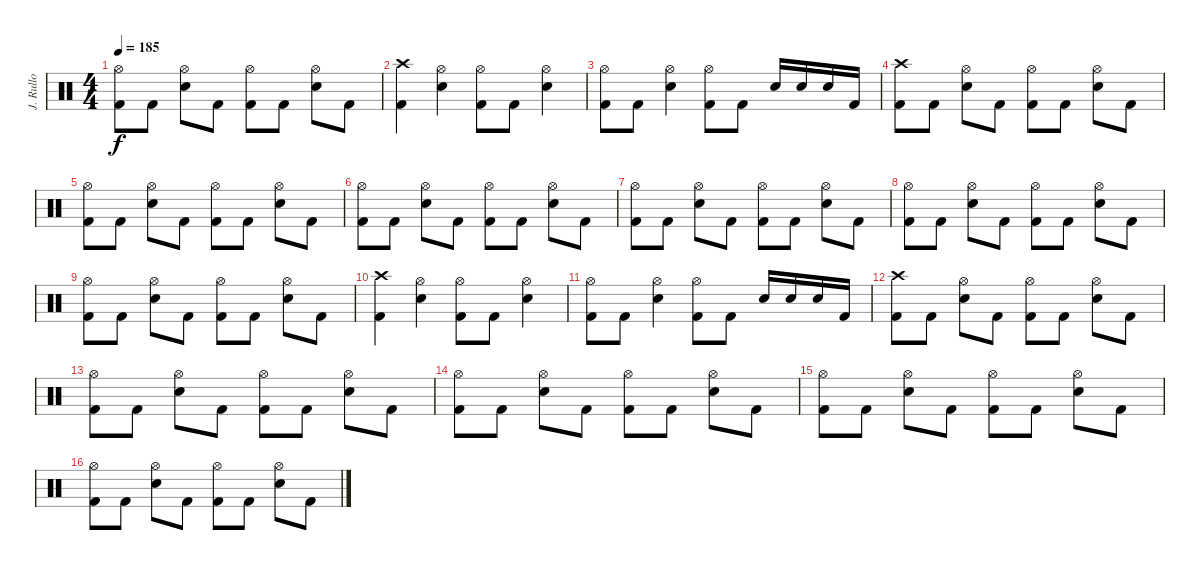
\track ("J. Rullo" "J. Rullo") {instrument percussion}
\staff {score}
\articulation defaults
\ts (4 4)
\tempo 185
\clef neutral
\ks c
("Hi-Hat (open)" "Kick (hit) 2").8{dy f} "Kick (hit) 2".8 ("Hi-Hat (open)" "Snare (hit) 2").8 "Kick (hit) 2".8 ("Hi-Hat (open)" "Kick (hit) 2").8 "Kick (hit) 2".8 ("Hi-Hat (open)" "Snare (hit) 2").8 "Kick (hit) 2".8 |
("Crash high (hit)" "Kick (hit) 2").4 ("Hi-Hat (open)" "Snare (hit) 2").4 ("Hi-Hat (open)" "Kick (hit) 2").8 "Kick (hit) 2".8 ("Hi-Hat (open)" "Snare (hit) 2").4 |
("Hi-Hat (open)" "Kick (hit) 2").8 "Kick (hit) 2".8 ("Hi-Hat (open)" "Snare (hit) 2").4 ("Hi-Hat (open)" "Kick (hit) 2").8 "Kick (hit) 2".8 "Snare (hit) 2".16 "Snare (hit) 2".16 "Snare (hit) 2".16 "Kick (hit) 2".16 |
("Crash high (hit)" "Kick (hit) 2").8 "Kick (hit) 2".8 ("Hi-Hat (open)" "Snare (hit) 2").8 "Kick (hit) 2".8 ("Hi-Hat (open)" "Kick (hit) 2").8 "Kick (hit) 2".8 ("Hi-Hat (open)" "Snare (hit) 2").8 "Kick (hit) 2".8 |
("Hi-Hat (open)" "Kick (hit) 2").8 "Kick (hit) 2".8 ("Hi-Hat (open)" "Snare (hit) 2").8 "Kick (hit) 2".8 ("Hi-Hat (open)" "Kick (hit) 2").8 "Kick (hit) 2".8 ("Hi-Hat (open)" "Snare (hit) 2").8 "Kick (hit) 2".8 |
("Hi-Hat (open)" "Kick (hit) 2").8 "Kick (hit) 2".8 ("Hi-Hat (open)" "Snare (hit) 2").8 "Kick (hit) 2".8 ("Hi-Hat (open)" "Kick (hit) 2").8 "Kick (hit) 2".8 ("Hi-Hat (open)" "Snare (hit) 2").8 "Kick (hit) 2".8 |
("Hi-Hat (open)" "Kick (hit) 2").8 "Kick (hit) 2".8 ("Hi-Hat (open)" "Snare (hit) 2").8 "Kick (hit) 2".8 ("Hi-Hat (open)" "Kick (hit) 2").8 "Kick (hit) 2".8 ("Hi-Hat (open)" "Snare (hit) 2").8 "Kick (hit) 2".8 |
("Hi-Hat (open)" "Kick (hit) 2").8 "Kick (hit) 2".8 ("Hi-Hat (open)" "Snare (hit) 2").8 "Kick (hit) 2".8 ("Hi-Hat (open)" "Kick (hit) 2").8 "Kick (hit) 2".8 ("Hi-Hat (open)" "Snare (hit) 2").8 "Kick (hit) 2".8 |
("Hi-Hat (open)" "Kick (hit) 2").8 "Kick (hit) 2".8 ("Hi-Hat (open)" "Snare (hit) 2").8 "Kick (hit) 2".8 ("Hi-Hat (open)" "Kick (hit) 2").8 "Kick (hit) 2".8 ("Hi-Hat (open)" "Snare (hit) 2").8 "Kick (hit) 2".8 |
("Crash high (hit)" "Kick (hit) 2").4 ("Hi-Hat (open)" "Snare (hit) 2").4 ("Hi-Hat (open)" "Kick (hit) 2").8 "Kick (hit) 2".8 ("Hi-Hat (open)" "Snare (hit) 2").4 |
("Hi-Hat (open)" "Kick (hit) 2").8 "Kick (hit) 2".8 ("Hi-Hat (open)" "Snare (hit) 2").4 ("Hi-Hat (open)" "Kick (hit) 2").8 "Kick (hit) 2".8 "Snare (hit) 2".16 "Snare (hit) 2".16 "Snare (hit) 2".16 "Kick (hit) 2".16 |
("Crash high (hit)" "Kick (hit) 2").8 "Kick (hit) 2".8 ("Hi-Hat (open)" "Snare (hit) 2").8 "Kick (hit) 2".8 ("Hi-Hat (open)" "Kick (hit) 2").8 "Kick (hit) 2".8 ("Hi-Hat (open)" "Snare (hit) 2").8 "Kick (hit) 2".8 |
("Hi-Hat (open)" "Kick (hit) 2").8 "Kick (hit) 2".8 ("Hi-Hat (open)" "Snare (hit) 2").8 "Kick (hit) 2".8 ("Hi-Hat (open)" "Kick (hit) 2").8 "Kick (hit) 2".8 ("Hi-Hat (open)" "Snare (hit) 2").8 "Kick (hit) 2".8 |
("Hi-Hat (open)" "Kick (hit) 2").8 "Kick (hit) 2".8 ("Hi-Hat (open)" "Snare (hit) 2").8 "Kick (hit) 2".8 ("Hi-Hat (open)" "Kick (hit) 2").8 "Kick (hit) 2".8 ("Hi-Hat (open)" "Snare (hit) 2").8 "Kick (hit) 2".8 |
("Hi-Hat (open)" "Kick (hit) 2").8 "Kick (hit) 2".8 ("Hi-Hat (open)" "Snare (hit) 2").8 "Kick (hit) 2".8 ("Hi-Hat (open)" "Kick (hit) 2").8 "Kick (hit) 2".8 ("Hi-Hat (open)" "Snare (hit) 2").8 "Kick (hit) 2".8 |
("Hi-Hat (open)" "Kick (hit) 2").8 "Kick (hit) 2".8 ("Hi-Hat (open)" "Snare (hit) 2").8 "Kick (hit) 2".8 ("Hi-Hat (open)" "Kick (hit) 2").8 "Kick (hit) 2".8 ("Hi-Hat (open)" "Snare (hit) 2").8 "Kick (hit) 2".8
